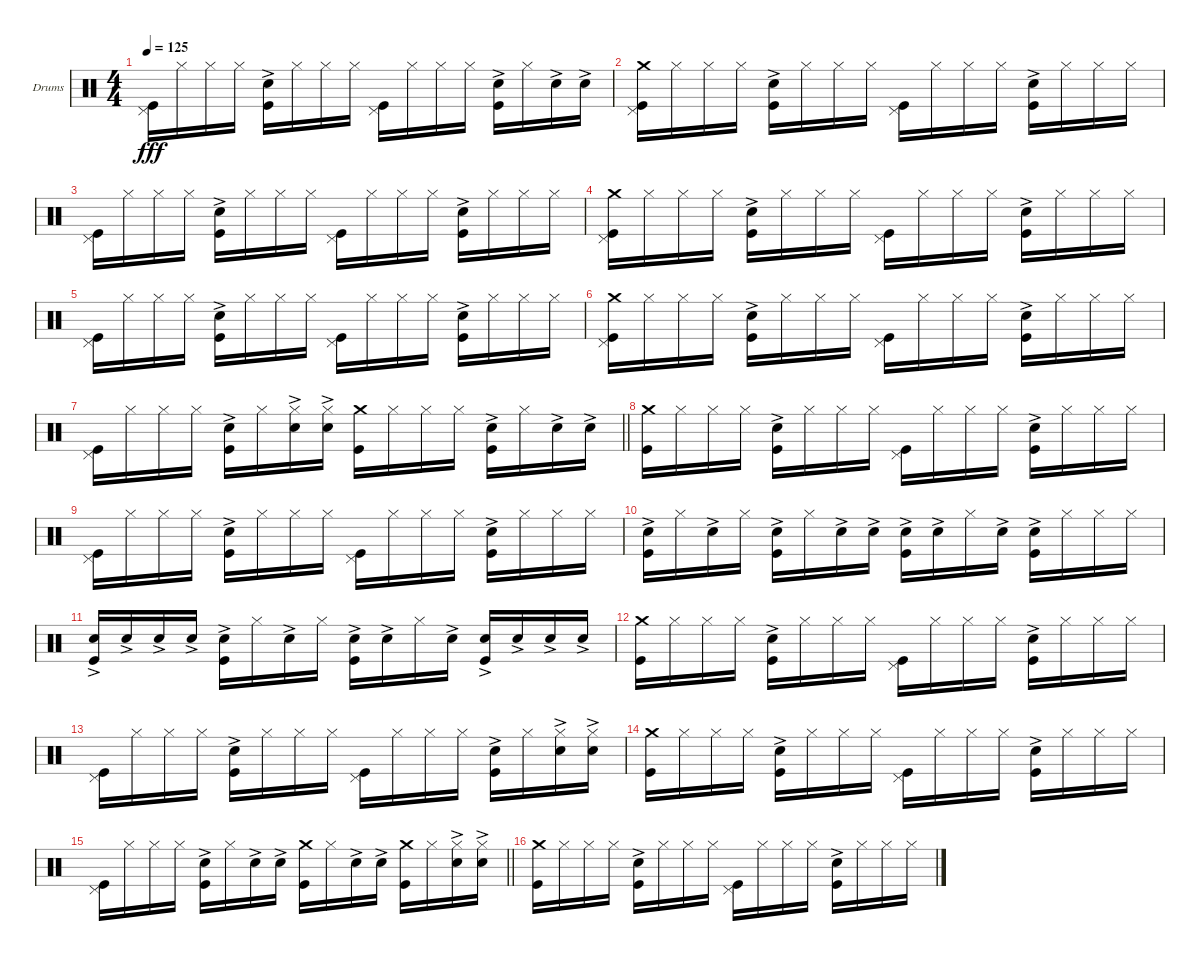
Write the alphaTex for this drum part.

\bracketExtendMode groupsimilarinstruments
\firstSystemTrackNameOrientation horizontal
\otherSystemsTrackNameOrientation horizontal
\track ("Ударники Григорий Гурьянов" "Drums") {instrument percussion}
\staff {score}
\articulation defaults
\ts (4 4)
\tempo 125
\clef neutral
\ks c
("Pedal Hi-Hat (hit)" "Kick (hit)").16{dy fff} "Hi-Hat (closed)".16 "Hi-Hat (closed)".16 "Hi-Hat (closed)".16 ("Snare (hit) 2"{ac} "Kick (hit)").16 "Hi-Hat (closed)".16 "Hi-Hat (closed)".16 "Hi-Hat (closed)".16 ("Pedal Hi-Hat (hit)" "Kick (hit)").16 "Hi-Hat (closed)".16 "Hi-Hat (closed)".16 "Hi-Hat (closed)".16 ("Snare (hit) 2"{ac} "Kick (hit)").16 "Hi-Hat (closed)".16 "Snare (hit) 2"{ac}.16 "Snare (hit) 2"{ac}.16 |
("Pedal Hi-Hat (hit)" "Crash medium (hit)" "Kick (hit)").16 "Hi-Hat (closed)".16 "Hi-Hat (closed)".16 "Hi-Hat (closed)".16 ("Snare (hit) 2"{ac} "Kick (hit)").16 "Hi-Hat (closed)".16 "Hi-Hat (closed)".16 "Hi-Hat (closed)".16 ("Pedal Hi-Hat (hit)" "Kick (hit)").16 "Hi-Hat (closed)".16 "Hi-Hat (closed)".16 "Hi-Hat (closed)".16 ("Snare (hit) 2"{ac} "Kick (hit)").16 "Hi-Hat (closed)".16 "Hi-Hat (closed)".16 "Hi-Hat (closed)".16 |
("Pedal Hi-Hat (hit)" "Kick (hit)").16 "Hi-Hat (closed)".16 "Hi-Hat (closed)".16 "Hi-Hat (closed)".16 ("Snare (hit) 2"{ac} "Kick (hit)").16 "Hi-Hat (closed)".16 "Hi-Hat (closed)".16 "Hi-Hat (closed)".16 ("Pedal Hi-Hat (hit)" "Kick (hit)").16 "Hi-Hat (closed)".16 "Hi-Hat (closed)".16 "Hi-Hat (closed)".16 ("Snare (hit) 2"{ac} "Kick (hit)").16 "Hi-Hat (closed)".16 "Hi-Hat (closed)".16 "Hi-Hat (closed)".16 |
("Pedal Hi-Hat (hit)" "Crash medium (hit)" "Kick (hit)").16 "Hi-Hat (closed)".16 "Hi-Hat (closed)".16 "Hi-Hat (closed)".16 ("Snare (hit) 2"{ac} "Kick (hit)").16 "Hi-Hat (closed)".16 "Hi-Hat (closed)".16 "Hi-Hat (closed)".16 ("Pedal Hi-Hat (hit)" "Kick (hit)").16 "Hi-Hat (closed)".16 "Hi-Hat (closed)".16 "Hi-Hat (closed)".16 ("Snare (hit) 2"{ac} "Kick (hit)").16 "Hi-Hat (closed)".16 "Hi-Hat (closed)".16 "Hi-Hat (closed)".16 |
("Pedal Hi-Hat (hit)" "Kick (hit)").16 "Hi-Hat (closed)".16 "Hi-Hat (closed)".16 "Hi-Hat (closed)".16 ("Snare (hit) 2"{ac} "Kick (hit)").16 "Hi-Hat (closed)".16 "Hi-Hat (closed)".16 "Hi-Hat (closed)".16 ("Pedal Hi-Hat (hit)" "Kick (hit)").16 "Hi-Hat (closed)".16 "Hi-Hat (closed)".16 "Hi-Hat (closed)".16 ("Snare (hit) 2"{ac} "Kick (hit)").16 "Hi-Hat (closed)".16 "Hi-Hat (closed)".16 "Hi-Hat (closed)".16 |
("Pedal Hi-Hat (hit)" "Crash medium (hit)" "Kick (hit)").16 "Hi-Hat (closed)".16 "Hi-Hat (closed)".16 "Hi-Hat (closed)".16 ("Snare (hit) 2"{ac} "Kick (hit)").16 "Hi-Hat (closed)".16 "Hi-Hat (closed)".16 "Hi-Hat (closed)".16 ("Pedal Hi-Hat (hit)" "Kick (hit)").16 "Hi-Hat (closed)".16 "Hi-Hat (closed)".16 "Hi-Hat (closed)".16 ("Snare (hit) 2"{ac} "Kick (hit)").16 "Hi-Hat (closed)".16 "Hi-Hat (closed)".16 "Hi-Hat (closed)".16 |
\barLineRight lightlight
("Pedal Hi-Hat (hit)" "Kick (hit)").16 "Hi-Hat (closed)".16 "Hi-Hat (closed)".16 "Hi-Hat (closed)".16 ("Snare (hit) 2"{ac} "Kick (hit)").16 "Hi-Hat (closed)".16 ("Hi-Hat (closed)" "Snare (hit) 2"{ac}).16 ("Hi-Hat (closed)" "Snare (hit) 2"{ac}).16 ("Crash medium (hit)" "Kick (hit)").16 "Hi-Hat (closed)".16 "Hi-Hat (closed)".16 "Hi-Hat (closed)".16 ("Snare (hit) 2"{ac} "Kick (hit)").16 "Hi-Hat (closed)".16 "Snare (hit) 2"{ac}.16 "Snare (hit) 2"{ac}.16 |
("Crash medium (hit)" "Kick (hit)").16 "Hi-Hat (closed)".16 "Hi-Hat (closed)".16 "Hi-Hat (closed)".16 ("Snare (hit) 2"{ac} "Kick (hit)").16 "Hi-Hat (closed)".16 "Hi-Hat (closed)".16 "Hi-Hat (closed)".16 ("Pedal Hi-Hat (hit)" "Kick (hit)").16 "Hi-Hat (closed)".16 "Hi-Hat (closed)".16 "Hi-Hat (closed)".16 ("Snare (hit) 2"{ac} "Kick (hit)").16 "Hi-Hat (closed)".16 "Hi-Hat (closed)".16 "Hi-Hat (closed)".16 |
("Pedal Hi-Hat (hit)" "Kick (hit)").16 "Hi-Hat (closed)".16 "Hi-Hat (closed)".16 "Hi-Hat (closed)".16 ("Snare (hit) 2"{ac} "Kick (hit)").16 "Hi-Hat (closed)".16 "Hi-Hat (closed)".16 "Hi-Hat (closed)".16 ("Pedal Hi-Hat (hit)" "Kick (hit)").16 "Hi-Hat (closed)".16 "Hi-Hat (closed)".16 "Hi-Hat (closed)".16 ("Snare (hit) 2"{ac} "Kick (hit)").16 "Hi-Hat (closed)".16 "Hi-Hat (closed)".16 "Hi-Hat (closed)".16 |
("Snare (hit) 2"{ac} "Kick (hit)").16 "Hi-Hat (closed)".16 "Snare (hit) 2"{ac}.16 "Hi-Hat (closed)".16 ("Snare (hit) 2"{ac} "Kick (hit)").16 "Hi-Hat (closed)".16 "Snare (hit) 2"{ac}.16 "Snare (hit) 2"{ac}.16 ("Snare (hit) 2"{ac} "Kick (hit)").16 "Snare (hit) 2"{ac}.16 "Hi-Hat (closed)".16 "Snare (hit) 2"{ac}.16 ("Snare (hit) 2"{ac} "Kick (hit)").16 "Hi-Hat (closed)".16 "Hi-Hat (closed)".16 "Hi-Hat (closed)".16 |
("Snare (hit) 2"{ac} "Kick (hit)").16 "Snare (hit) 2"{ac}.16 "Snare (hit) 2"{ac}.16 "Snare (hit) 2"{ac}.16 ("Snare (hit) 2"{ac} "Kick (hit)").16 "Hi-Hat (closed)".16 "Snare (hit) 2"{ac}.16 "Hi-Hat (closed)".16 ("Snare (hit) 2"{ac} "Kick (hit)").16 "Snare (hit) 2"{ac}.16 "Hi-Hat (closed)".16 "Snare (hit) 2"{ac}.16 ("Snare (hit) 2"{ac} "Kick (hit)").16 "Snare (hit) 2"{ac}.16 "Snare (hit) 2"{ac}.16 "Snare (hit) 2"{ac}.16 |
("Crash medium (hit)" "Kick (hit)").16 "Hi-Hat (closed)".16 "Hi-Hat (closed)".16 "Hi-Hat (closed)".16 ("Snare (hit) 2"{ac} "Kick (hit)").16 "Hi-Hat (closed)".16 "Hi-Hat (closed)".16 "Hi-Hat (closed)".16 ("Pedal Hi-Hat (hit)" "Kick (hit)").16 "Hi-Hat (closed)".16 "Hi-Hat (closed)".16 "Hi-Hat (closed)".16 ("Snare (hit) 2"{ac} "Kick (hit)").16 "Hi-Hat (closed)".16 "Hi-Hat (closed)".16 "Hi-Hat (closed)".16 |
("Pedal Hi-Hat (hit)" "Kick (hit)").16 "Hi-Hat (closed)".16 "Hi-Hat (closed)".16 "Hi-Hat (closed)".16 ("Snare (hit) 2"{ac} "Kick (hit)").16 "Hi-Hat (closed)".16 "Hi-Hat (closed)".16 "Hi-Hat (closed)".16 ("Pedal Hi-Hat (hit)" "Kick (hit)").16 "Hi-Hat (closed)".16 "Hi-Hat (closed)".16 "Hi-Hat (closed)".16 ("Snare (hit) 2"{ac} "Kick (hit)").16 "Hi-Hat (closed)".16 ("Hi-Hat (closed)" "Snare (hit) 2"{ac}).16 ("Hi-Hat (closed)" "Snare (hit) 2"{ac}).16 |
("Crash medium (hit)" "Kick (hit)").16 "Hi-Hat (closed)".16 "Hi-Hat (closed)".16 "Hi-Hat (closed)".16 ("Snare (hit) 2"{ac} "Kick (hit)").16 "Hi-Hat (closed)".16 "Hi-Hat (closed)".16 "Hi-Hat (closed)".16 ("Pedal Hi-Hat (hit)" "Kick (hit)").16 "Hi-Hat (closed)".16 "Hi-Hat (closed)".16 "Hi-Hat (closed)".16 ("Snare (hit) 2"{ac} "Kick (hit)").16 "Hi-Hat (closed)".16 "Hi-Hat (closed)".16 "Hi-Hat (closed)".16 |
\barLineRight lightlight
("Pedal Hi-Hat (hit)" "Kick (hit)").16 "Hi-Hat (closed)".16 "Hi-Hat (closed)".16 "Hi-Hat (closed)".16 ("Snare (hit) 2"{ac} "Kick (hit)").16 "Hi-Hat (closed)".16 "Snare (hit) 2"{ac}.16 "Snare (hit) 2"{ac}.16 ("Crash medium (hit)" "Kick (hit)").16 "Hi-Hat (closed)".16 "Snare (hit) 2"{ac}.16 "Snare (hit) 2"{ac}.16 ("Crash medium (hit)" "Kick (hit)").16 "Hi-Hat (closed)".16 ("Hi-Hat (closed)" "Snare (hit) 2"{ac}).16 ("Hi-Hat (closed)" "Snare (hit) 2"{ac}).16 |
("Crash medium (hit)" "Kick (hit)").16 "Hi-Hat (closed)".16 "Hi-Hat (closed)".16 "Hi-Hat (closed)".16 ("Snare (hit) 2"{ac} "Kick (hit)").16 "Hi-Hat (closed)".16 "Hi-Hat (closed)".16 "Hi-Hat (closed)".16 ("Pedal Hi-Hat (hit)" "Kick (hit)").16 "Hi-Hat (closed)".16 "Hi-Hat (closed)".16 "Hi-Hat (closed)".16 ("Snare (hit) 2"{ac} "Kick (hit)").16 "Hi-Hat (closed)".16 "Hi-Hat (closed)".16 "Hi-Hat (closed)".16
